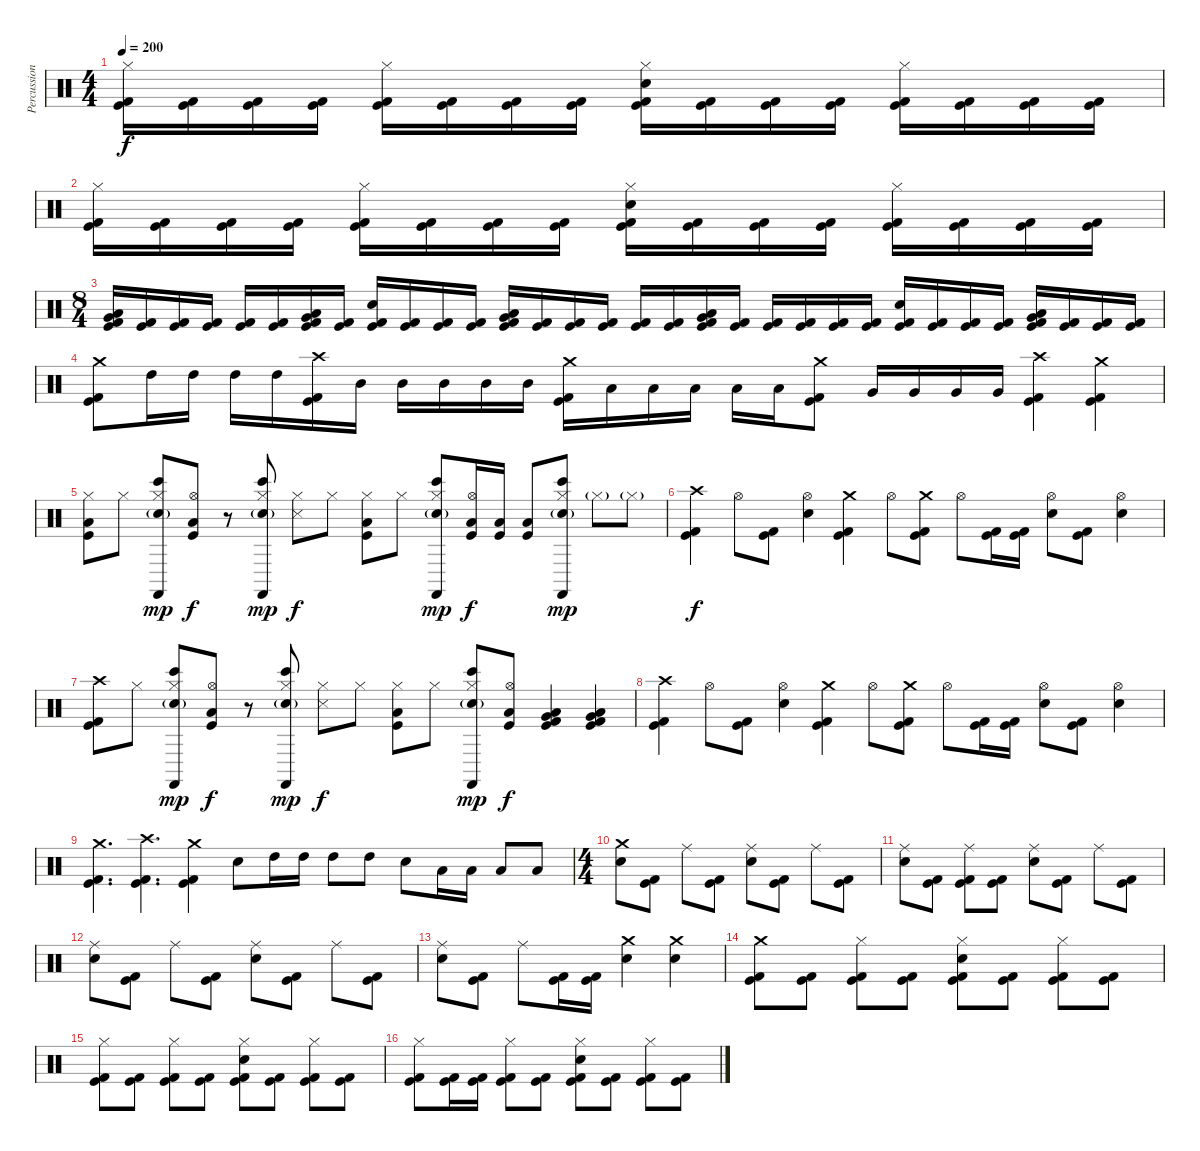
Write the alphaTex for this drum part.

\track ("Percussions" "Percussion") {instrument percussion}
\staff {score}
\articulation defaults
\ts (4 4)
\tempo 200
\clef neutral
\ks c
("Hi-Hat (closed)" "Kick (hit)" "Kick (hit) 2").16{dy f} ("Kick (hit)" "Kick (hit) 2").16 ("Kick (hit)" "Kick (hit) 2").16 ("Kick (hit)" "Kick (hit) 2").16 ("Hi-Hat (closed)" "Kick (hit)" "Kick (hit) 2").16 ("Kick (hit)" "Kick (hit) 2").16 ("Kick (hit)" "Kick (hit) 2").16 ("Kick (hit)" "Kick (hit) 2").16 ("Hi-Hat (closed)" "Electric Snare (hit)" "Kick (hit)" "Kick (hit) 2").16 ("Kick (hit)" "Kick (hit) 2").16 ("Kick (hit)" "Kick (hit) 2").16 ("Kick (hit)" "Kick (hit) 2").16 ("Hi-Hat (closed)" "Kick (hit)" "Kick (hit) 2").16 ("Kick (hit)" "Kick (hit) 2").16 ("Kick (hit)" "Kick (hit) 2").16 ("Kick (hit)" "Kick (hit) 2").16 |
("Hi-Hat (closed)" "Kick (hit)" "Kick (hit) 2").16 ("Kick (hit)" "Kick (hit) 2").16 ("Kick (hit)" "Kick (hit) 2").16 ("Kick (hit)" "Kick (hit) 2").16 ("Hi-Hat (closed)" "Kick (hit)" "Kick (hit) 2").16 ("Kick (hit)" "Kick (hit) 2").16 ("Kick (hit)" "Kick (hit) 2").16 ("Kick (hit)" "Kick (hit) 2").16 ("Hi-Hat (closed)" "Electric Snare (hit)" "Kick (hit)" "Kick (hit) 2").16 ("Kick (hit)" "Kick (hit) 2").16 ("Kick (hit)" "Kick (hit) 2").16 ("Kick (hit)" "Kick (hit) 2").16 ("Hi-Hat (closed)" "Kick (hit)" "Kick (hit) 2").16 ("Kick (hit)" "Kick (hit) 2").16 ("Kick (hit)" "Kick (hit) 2").16 ("Kick (hit)" "Kick (hit) 2").16 |
\ts (8 4)
("Very Low Tom (hit)" "Low Floor Tom (hit)" "Kick (hit)" "Kick (hit) 2").16 ("Kick (hit)" "Kick (hit) 2").16 ("Kick (hit)" "Kick (hit) 2").16 ("Kick (hit)" "Kick (hit) 2").16 ("Kick (hit)" "Kick (hit) 2").16 ("Kick (hit)" "Kick (hit) 2").16 ("Very Low Tom (hit)" "Low Floor Tom (hit)" "Kick (hit)" "Kick (hit) 2").16 ("Kick (hit)" "Kick (hit) 2").16 ("Electric Snare (hit)" "Kick (hit)" "Kick (hit) 2").16 ("Kick (hit)" "Kick (hit) 2").16 ("Kick (hit)" "Kick (hit) 2").16 ("Kick (hit)" "Kick (hit) 2").16 ("Very Low Tom (hit)" "Low Floor Tom (hit)" "Kick (hit)" "Kick (hit) 2").16 ("Kick (hit)" "Kick (hit) 2").16 ("Kick (hit)" "Kick (hit) 2").16 ("Kick (hit)" "Kick (hit) 2").16 ("Kick (hit)" "Kick (hit) 2").16 ("Kick (hit)" "Kick (hit) 2").16 ("Very Low Tom (hit)" "Low Floor Tom (hit)" "Kick (hit)" "Kick (hit) 2").16 ("Kick (hit)" "Kick (hit) 2").16 ("Kick (hit)" "Kick (hit) 2").16 ("Kick (hit)" "Kick (hit) 2").16 ("Kick (hit)" "Kick (hit) 2").16 ("Kick (hit)" "Kick (hit) 2").16 ("Electric Snare (hit)" "Kick (hit)" "Kick (hit) 2").16 ("Kick (hit)" "Kick (hit) 2").16 ("Kick (hit)" "Kick (hit) 2").16 ("Kick (hit)" "Kick (hit) 2").16 ("Very Low Tom (hit)" "Low Floor Tom (hit)" "Kick (hit)" "Kick (hit) 2").16 ("Kick (hit)" "Kick (hit) 2").16 ("Kick (hit)" "Kick (hit) 2").16 ("Kick (hit)" "Kick (hit) 2").16 |
("Crash medium (hit)" "Kick (hit)" "Kick (hit) 2").8 "High Tom (hit)".16 "High Tom (hit)".16 "High Tom (hit)".16 "High Tom (hit)".16 ("Crash high (hit)" "Kick (hit)" "Kick (hit) 2").16 "Mid Tom (hit)".16 "Mid Tom (hit)".16 "Mid Tom (hit)".16 "Mid Tom (hit)".16 "Mid Tom (hit)".16 ("Crash medium (hit)" "Kick (hit)" "Kick (hit) 2").16 "Low Tom (hit)".16 "Low Tom (hit)".16 "Low Tom (hit)".16 "Low Tom (hit)".16 "Low Tom (hit)".16 ("Crash medium (hit)" "Kick (hit)" "Kick (hit) 2").8 "Very Low Tom (hit)".16 "Very Low Tom (hit)".16 "Very Low Tom (hit)".16 "Very Low Tom (hit)".16 ("Crash high (hit)" "Kick (hit)" "Kick (hit) 2").4 ("Crash medium (hit)" "Kick (hit)" "Kick (hit) 2").4 |
("Hi-Hat (closed)" "Kick (hit)" "Low Floor Tom (hit)").8{volume 9} "Hi-Hat (closed)".8 ("Bongo High (hit)" "Hi-Hat (closed)" "Electric Snare (hit)"{g} "Castanets (hit)").8{dy mp} ("Hi-Hat (open)" "Kick (hit)" "Low Floor Tom (hit)").8{dy f} r.8 ("Bongo High (hit)" "Hi-Hat (closed)" "Electric Snare (hit)"{g} "Castanets (hit)").8{dy mp} ("Hi-Hat (closed)" "Metronome (hit)").8{dy f} "Hi-Hat (closed)".8 ("Hi-Hat (closed)" "Kick (hit)" "Low Floor Tom (hit)").8 "Hi-Hat (closed)".8 ("Bongo High (hit)" "Hi-Hat (closed)" "Electric Snare (hit)"{g} "Castanets (hit)").8{dy mp} ("Hi-Hat (open)" "Kick (hit)" "Low Floor Tom (hit)").16{dy f} ("Kick (hit)" "Low Floor Tom (hit)").16 ("Kick (hit)" "Low Floor Tom (hit)").8 ("Bongo High (hit)" "Hi-Hat (closed)" "Electric Snare (hit)"{g} "Castanets (hit)").8{dy mp} "Hi-Hat (closed)"{g}.8 "Hi-Hat (closed)"{g}.8 |
("Crash high (hit)" "Kick (hit)" "Kick (hit) 2").4{dy f volume 16} "Hi-Hat (open)".8 ("Kick (hit)" "Kick (hit) 2").8 ("Hi-Hat (open)" "Electric Snare (hit)").4 ("Crash medium (hit)" "Kick (hit)" "Kick (hit) 2").4 "Hi-Hat (open)".8 ("Crash medium (hit)" "Kick (hit)" "Kick (hit) 2").8 "Hi-Hat (open)".8 ("Kick (hit)" "Kick (hit) 2").16 ("Kick (hit)" "Kick (hit) 2").16 ("Hi-Hat (open)" "Electric Snare (hit)").8 ("Kick (hit)" "Kick (hit) 2").8 ("Hi-Hat (open)" "Electric Snare (hit)").4 |
("Crash high (hit)" "Kick (hit)" "Kick (hit) 2").8 "Hi-Hat (closed)".8{volume 9} ("Bongo High (hit)" "Hi-Hat (closed)" "Electric Snare (hit)"{g} "Castanets (hit)").8{dy mp} ("Hi-Hat (open)" "Kick (hit)" "Low Floor Tom (hit)").8{dy f} r.8 ("Bongo High (hit)" "Hi-Hat (closed)" "Electric Snare (hit)"{g} "Castanets (hit)").8{dy mp} ("Hi-Hat (closed)" "Metronome (hit)").8{dy f} "Hi-Hat (closed)".8 ("Hi-Hat (closed)" "Kick (hit)" "Low Floor Tom (hit)").8 "Hi-Hat (closed)".8 ("Bongo High (hit)" "Hi-Hat (closed)" "Electric Snare (hit)"{g} "Castanets (hit)").8{dy mp} ("Hi-Hat (open)" "Kick (hit)" "Low Floor Tom (hit)").8{dy f} ("Very Low Tom (hit)" "Low Floor Tom (hit)" "Kick (hit)" "Kick (hit) 2").4{volume 16} ("Very Low Tom (hit)" "Low Floor Tom (hit)" "Kick (hit)" "Kick (hit) 2").4 |
("Crash high (hit)" "Kick (hit)" "Kick (hit) 2").4 "Hi-Hat (open)".8 ("Kick (hit)" "Kick (hit) 2").8 ("Hi-Hat (open)" "Electric Snare (hit)").4 ("Crash medium (hit)" "Kick (hit)" "Kick (hit) 2").4 "Hi-Hat (open)".8 ("Crash medium (hit)" "Kick (hit)" "Kick (hit) 2").8 "Hi-Hat (open)".8 ("Kick (hit)" "Kick (hit) 2").16 ("Kick (hit)" "Kick (hit) 2").16 ("Hi-Hat (open)" "Electric Snare (hit)").8 ("Kick (hit)" "Kick (hit) 2").8 ("Hi-Hat (open)" "Electric Snare (hit)").4 |
("Crash medium (hit)" "Kick (hit)" "Kick (hit) 2").4{d} ("Crash high (hit)" "Kick (hit)" "Kick (hit) 2").4{d} ("Crash medium (hit)" "Kick (hit)" "Kick (hit) 2").4 "Electric Snare (hit)".8 "High Tom (hit)".16 "High Tom (hit)".16 "High Tom (hit)".8 "High Tom (hit)".8 "Electric Snare (hit)".8 "Low Tom (hit)".16 "Low Tom (hit)".16 "Low Tom (hit)".8 "Low Tom (hit)".8 |
\ts (4 4)
("Crash medium (hit)" "Electric Snare (hit)").8 ("Kick (hit)" "Kick (hit) 2").8 "Ride (middle)".8 ("Kick (hit)" "Kick (hit) 2").8 ("Ride (middle)" "Electric Snare (hit)").8 ("Kick (hit)" "Kick (hit) 2").8 "Ride (middle)".8 ("Kick (hit)" "Kick (hit) 2").8 |
("Ride (middle)" "Electric Snare (hit)").8 ("Kick (hit)" "Kick (hit) 2").8 ("Ride (middle)" "Kick (hit)" "Kick (hit) 2").8 ("Kick (hit)" "Kick (hit) 2").8 ("Ride (middle)" "Electric Snare (hit)").8 ("Kick (hit)" "Kick (hit) 2").8 "Ride (middle)".8 ("Kick (hit)" "Kick (hit) 2").8 |
("Ride (middle)" "Electric Snare (hit)").8 ("Kick (hit)" "Kick (hit) 2").8 "Ride (middle)".8 ("Kick (hit)" "Kick (hit) 2").8 ("Ride (middle)" "Electric Snare (hit)").8 ("Kick (hit)" "Kick (hit) 2").8 "Ride (middle)".8 ("Kick (hit)" "Kick (hit) 2").8 |
("Ride (middle)" "Electric Snare (hit)").8 ("Kick (hit)" "Kick (hit) 2").8 "Ride (middle)".8 ("Kick (hit)" "Kick (hit) 2").16 ("Kick (hit)" "Kick (hit) 2").16 ("Crash medium (hit)" "Electric Snare (hit)").4 ("Crash medium (hit)" "Electric Snare (hit)").4 |
("Crash medium (hit)" "Kick (hit)" "Kick (hit) 2").8 ("Kick (hit)" "Kick (hit) 2").8 ("Hi-Hat (closed)" "Kick (hit)" "Kick (hit) 2").8 ("Kick (hit)" "Kick (hit) 2").8 ("Hi-Hat (closed)" "Electric Snare (hit)" "Kick (hit)" "Kick (hit) 2").8 ("Kick (hit)" "Kick (hit) 2").8 ("Hi-Hat (closed)" "Kick (hit)" "Kick (hit) 2").8 ("Kick (hit)" "Kick (hit) 2").8 |
("Hi-Hat (closed)" "Kick (hit)" "Kick (hit) 2").8 ("Kick (hit)" "Kick (hit) 2").8 ("Hi-Hat (closed)" "Kick (hit)" "Kick (hit) 2").8 ("Kick (hit)" "Kick (hit) 2").8 ("Hi-Hat (closed)" "Electric Snare (hit)" "Kick (hit)" "Kick (hit) 2").8 ("Kick (hit)" "Kick (hit) 2").8 ("Hi-Hat (closed)" "Kick (hit)" "Kick (hit) 2").8 ("Kick (hit)" "Kick (hit) 2").8 |
("Hi-Hat (closed)" "Kick (hit)" "Kick (hit) 2").8 ("Kick (hit)" "Kick (hit) 2").16 ("Kick (hit)" "Kick (hit) 2").16 ("Hi-Hat (closed)" "Kick (hit)" "Kick (hit) 2").8 ("Kick (hit)" "Kick (hit) 2").8 ("Hi-Hat (closed)" "Electric Snare (hit)" "Kick (hit)" "Kick (hit) 2").8 ("Kick (hit)" "Kick (hit) 2").8 ("Hi-Hat (closed)" "Kick (hit)" "Kick (hit) 2").8 ("Kick (hit)" "Kick (hit) 2").8
